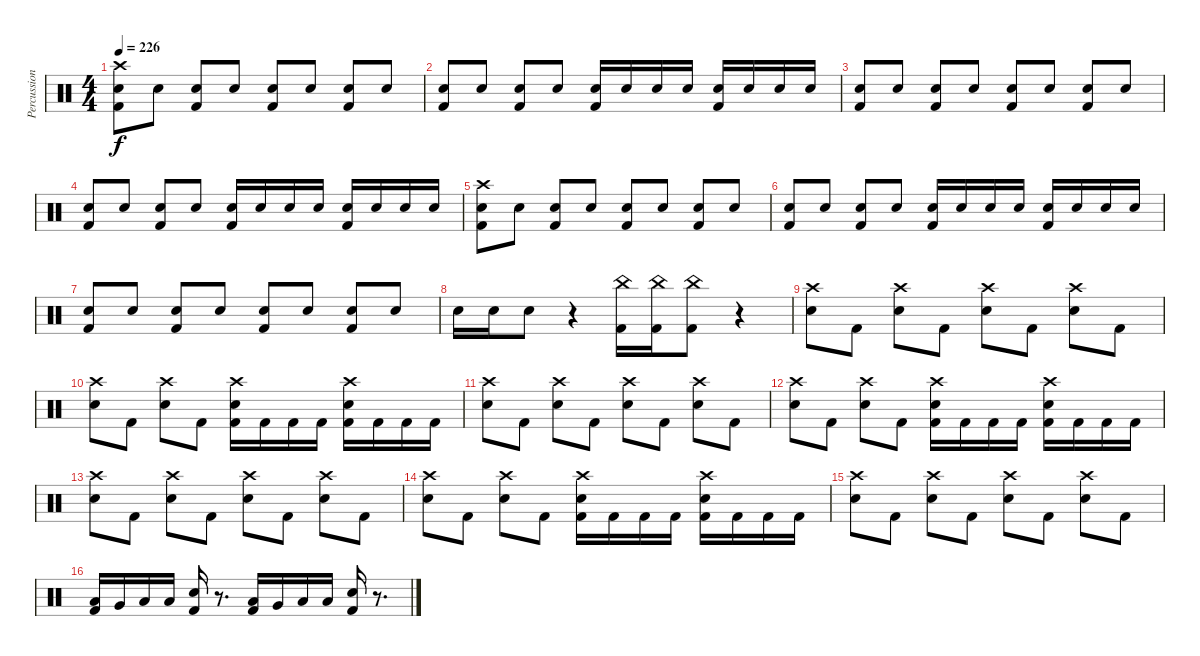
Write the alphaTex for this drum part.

\track ("Percussion" "Percussion") {instrument percussion}
\staff {score}
\articulation defaults
\ts (4 4)
\section ("" "")
\tempo 226
\clef neutral
\ks c
("Crash high (hit)" "Snare (hit) 2" "Kick (hit) 2").8{dy f} "Snare (hit) 2".8 ("Snare (hit) 2" "Kick (hit) 2").8 "Snare (hit) 2".8 ("Snare (hit) 2" "Kick (hit) 2").8 "Snare (hit) 2".8 ("Snare (hit) 2" "Kick (hit) 2").8 "Snare (hit) 2".8 |
("Snare (hit) 2" "Kick (hit) 2").8 "Snare (hit) 2".8 ("Snare (hit) 2" "Kick (hit) 2").8 "Snare (hit) 2".8 ("Snare (hit) 2" "Kick (hit) 2").16 "Snare (hit) 2".16 "Snare (hit) 2".16 "Snare (hit) 2".16 ("Snare (hit) 2" "Kick (hit) 2").16 "Snare (hit) 2".16 "Snare (hit) 2".16 "Snare (hit) 2".16 |
("Snare (hit) 2" "Kick (hit) 2").8 "Snare (hit) 2".8 ("Snare (hit) 2" "Kick (hit) 2").8 "Snare (hit) 2".8 ("Snare (hit) 2" "Kick (hit) 2").8 "Snare (hit) 2".8 ("Snare (hit) 2" "Kick (hit) 2").8 "Snare (hit) 2".8 |
("Snare (hit) 2" "Kick (hit) 2").8 "Snare (hit) 2".8 ("Snare (hit) 2" "Kick (hit) 2").8 "Snare (hit) 2".8 ("Snare (hit) 2" "Kick (hit) 2").16 "Snare (hit) 2".16 "Snare (hit) 2".16 "Snare (hit) 2".16 ("Snare (hit) 2" "Kick (hit) 2").16 "Snare (hit) 2".16 "Snare (hit) 2".16 "Snare (hit) 2".16 |
("Crash high (hit)" "Snare (hit) 2" "Kick (hit) 2").8 "Snare (hit) 2".8 ("Snare (hit) 2" "Kick (hit) 2").8 "Snare (hit) 2".8 ("Snare (hit) 2" "Kick (hit) 2").8 "Snare (hit) 2".8 ("Snare (hit) 2" "Kick (hit) 2").8 "Snare (hit) 2".8 |
("Snare (hit) 2" "Kick (hit) 2").8 "Snare (hit) 2".8 ("Snare (hit) 2" "Kick (hit) 2").8 "Snare (hit) 2".8 ("Snare (hit) 2" "Kick (hit) 2").16 "Snare (hit) 2".16 "Snare (hit) 2".16 "Snare (hit) 2".16 ("Snare (hit) 2" "Kick (hit) 2").16 "Snare (hit) 2".16 "Snare (hit) 2".16 "Snare (hit) 2".16 |
("Snare (hit) 2" "Kick (hit) 2").8 "Snare (hit) 2".8 ("Snare (hit) 2" "Kick (hit) 2").8 "Snare (hit) 2".8 ("Snare (hit) 2" "Kick (hit) 2").8 "Snare (hit) 2".8 ("Snare (hit) 2" "Kick (hit) 2").8 "Snare (hit) 2".8 |
"Snare (hit) 2".16 "Snare (hit) 2".16 "Snare (hit) 2".8 r.4 ("China (hit)" "Kick (hit) 2").16 ("China (hit)" "Kick (hit) 2").16 ("China (hit)" "Kick (hit) 2").8 r.4 |
("Crash high (hit)" "Snare (hit) 2").8 "Kick (hit) 2".8 ("Crash high (hit)" "Snare (hit) 2").8 "Kick (hit) 2".8 ("Crash high (hit)" "Snare (hit) 2").8 "Kick (hit) 2".8 ("Crash high (hit)" "Snare (hit) 2").8 "Kick (hit) 2".8 |
("Crash high (hit)" "Snare (hit) 2").8 "Kick (hit) 2".8 ("Crash high (hit)" "Snare (hit) 2").8 "Kick (hit) 2".8 ("Crash high (hit)" "Snare (hit) 2" "Kick (hit) 2").16 "Kick (hit) 2".16 "Kick (hit) 2".16 "Kick (hit) 2".16 ("Crash high (hit)" "Snare (hit) 2" "Kick (hit) 2").16 "Kick (hit) 2".16 "Kick (hit) 2".16 "Kick (hit) 2".16 |
("Crash high (hit)" "Snare (hit) 2").8 "Kick (hit) 2".8 ("Crash high (hit)" "Snare (hit) 2").8 "Kick (hit) 2".8 ("Crash high (hit)" "Snare (hit) 2").8 "Kick (hit) 2".8 ("Crash high (hit)" "Snare (hit) 2").8 "Kick (hit) 2".8 |
("Crash high (hit)" "Snare (hit) 2").8 "Kick (hit) 2".8 ("Crash high (hit)" "Snare (hit) 2").8 "Kick (hit) 2".8 ("Crash high (hit)" "Snare (hit) 2" "Kick (hit) 2").16 "Kick (hit) 2".16 "Kick (hit) 2".16 "Kick (hit) 2".16 ("Crash high (hit)" "Snare (hit) 2" "Kick (hit) 2").16 "Kick (hit) 2".16 "Kick (hit) 2".16 "Kick (hit) 2".16 |
("Crash high (hit)" "Snare (hit) 2").8 "Kick (hit) 2".8 ("Crash high (hit)" "Snare (hit) 2").8 "Kick (hit) 2".8 ("Crash high (hit)" "Snare (hit) 2").8 "Kick (hit) 2".8 ("Crash high (hit)" "Snare (hit) 2").8 "Kick (hit) 2".8 |
("Crash high (hit)" "Snare (hit) 2").8 "Kick (hit) 2".8 ("Crash high (hit)" "Snare (hit) 2").8 "Kick (hit) 2".8 ("Crash high (hit)" "Snare (hit) 2" "Kick (hit) 2").16 "Kick (hit) 2".16 "Kick (hit) 2".16 "Kick (hit) 2".16 ("Crash high (hit)" "Snare (hit) 2" "Kick (hit) 2").16 "Kick (hit) 2".16 "Kick (hit) 2".16 "Kick (hit) 2".16 |
("Crash high (hit)" "Snare (hit) 2").8 "Kick (hit) 2".8 ("Crash high (hit)" "Snare (hit) 2").8 "Kick (hit) 2".8 ("Crash high (hit)" "Snare (hit) 2").8 "Kick (hit) 2".8 ("Crash high (hit)" "Snare (hit) 2").8 "Kick (hit) 2".8 |
("Low Tom (hit)" "Kick (hit) 2").16 "Very Low Tom (hit)".16 "Low Floor Tom (hit)".16 "Low Floor Tom (hit)".16 ("Snare (hit) 2" "Kick (hit) 2").16 r.8{d} ("Low Tom (hit)" "Kick (hit) 2").16 "Very Low Tom (hit)".16 "Low Floor Tom (hit)".16 "Low Floor Tom (hit)".16 ("Snare (hit) 2" "Kick (hit) 2").16 r.8{d}
